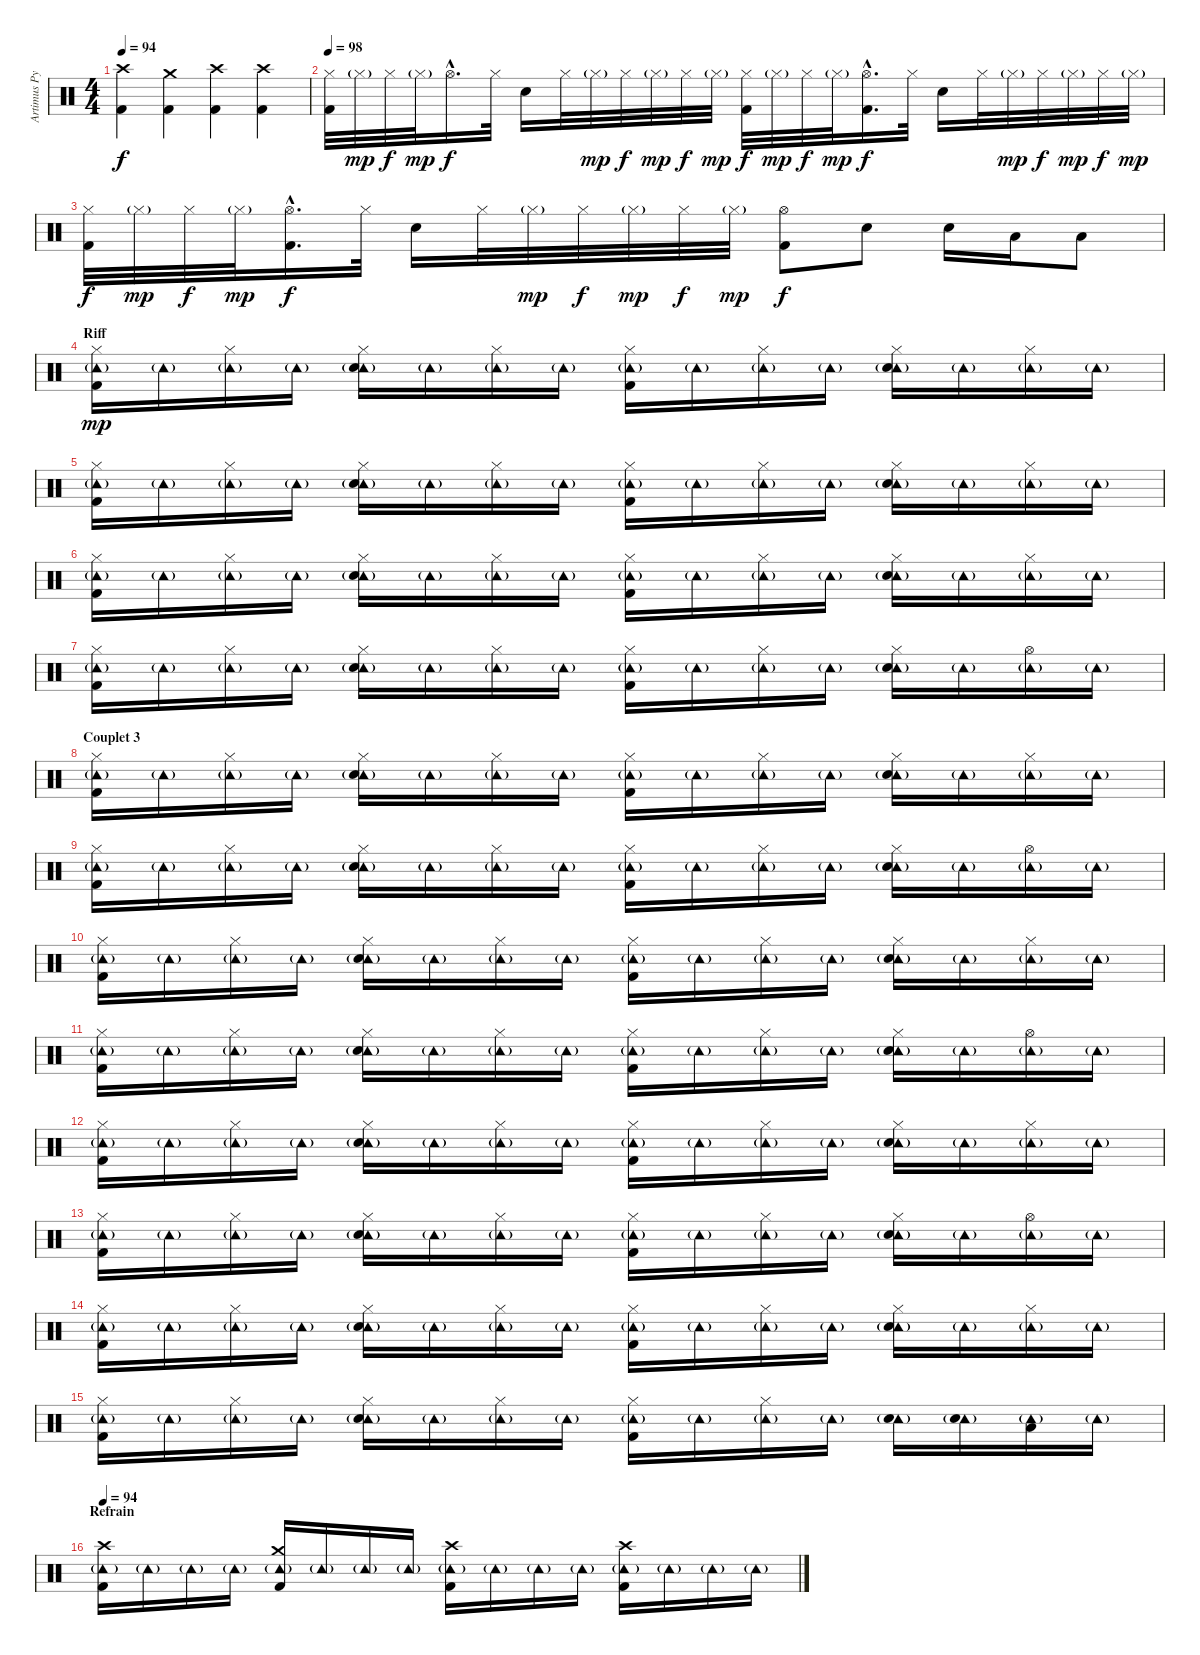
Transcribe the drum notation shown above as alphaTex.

\track ("Artimus Pyle (drums)" "Artimus Py") {instrument percussion}
\staff {score}
\articulation defaults
\ts (4 4)
\tempo 94
\clef neutral
\ks c
("Crash high (hit)" "Kick (hit) 2").4{dy f} ("Crash medium (hit)" "Kick (hit) 2").4 ("Crash high (hit)" "Kick (hit) 2").4 ("Crash high (hit)" "Kick (hit) 2").4 |
\tempo 98
("Hi-Hat (closed)" "Kick (hit) 2").32 "Hi-Hat (closed)"{g}.32{dy mp} "Hi-Hat (closed)".32{dy f} "Hi-Hat (closed)"{g}.32{dy mp} "Hi-Hat (open)"{hac}.16{d dy f} "Hi-Hat (closed)".32 "Electric Snare (hit)".16 "Hi-Hat (closed)".32 "Hi-Hat (closed)"{g}.32{dy mp} "Hi-Hat (closed)".32{dy f} "Hi-Hat (closed)"{g}.32{dy mp} "Hi-Hat (closed)".32{dy f} "Hi-Hat (closed)"{g}.32{dy mp} ("Hi-Hat (closed)" "Kick (hit) 2").32{dy f} "Hi-Hat (closed)"{g}.32{dy mp} "Hi-Hat (closed)".32{dy f} "Hi-Hat (closed)"{g}.32{dy mp} ("Hi-Hat (open)"{hac} "Kick (hit) 2"{hac}).16{d dy f} "Hi-Hat (closed)".32 "Electric Snare (hit)".16 "Hi-Hat (closed)".32 "Hi-Hat (closed)"{g}.32{dy mp} "Hi-Hat (closed)".32{dy f} "Hi-Hat (closed)"{g}.32{dy mp} "Hi-Hat (closed)".32{dy f} "Hi-Hat (closed)"{g}.32{dy mp} |
("Hi-Hat (closed)" "Kick (hit) 2").32{dy f} "Hi-Hat (closed)"{g}.32{dy mp} "Hi-Hat (closed)".32{dy f} "Hi-Hat (closed)"{g}.32{dy mp} ("Hi-Hat (open)"{hac} "Kick (hit) 2"{hac}).16{d dy f} "Hi-Hat (closed)".32 "Electric Snare (hit)".16 "Hi-Hat (closed)".32 "Hi-Hat (closed)"{g}.32{dy mp} "Hi-Hat (closed)".32{dy f} "Hi-Hat (closed)"{g}.32{dy mp} "Hi-Hat (closed)".32{dy f} "Hi-Hat (closed)"{g}.32{dy mp} ("Hi-Hat (open)" "Kick (hit) 2").8{dy f} "Electric Snare (hit)".8 "Electric Snare (hit)".16 "Low Tom (hit)".16 "Low Tom (hit)".8 |
\section ("" "Riff")
("Tambourine (hit)"{g} "Hi-Hat (closed)" "Kick (hit) 2").16{dy mp} "Tambourine (hit)"{g}.16 ("Tambourine (hit)"{g} "Hi-Hat (closed)").16 "Tambourine (hit)"{g}.16 ("Tambourine (hit)"{g} "Hi-Hat (closed)" "Electric Snare (hit)").16 "Tambourine (hit)"{g}.16 ("Tambourine (hit)"{g} "Hi-Hat (closed)").16 "Tambourine (hit)"{g}.16 ("Tambourine (hit)"{g} "Hi-Hat (closed)" "Kick (hit) 2").16 "Tambourine (hit)"{g}.16 ("Tambourine (hit)"{g} "Hi-Hat (closed)").16 "Tambourine (hit)"{g}.16 ("Tambourine (hit)"{g} "Hi-Hat (closed)" "Electric Snare (hit)").16 "Tambourine (hit)"{g}.16 ("Tambourine (hit)"{g} "Hi-Hat (closed)").16 "Tambourine (hit)"{g}.16 |
("Tambourine (hit)"{g} "Hi-Hat (closed)" "Kick (hit) 2").16 "Tambourine (hit)"{g}.16 ("Tambourine (hit)"{g} "Hi-Hat (closed)").16 "Tambourine (hit)"{g}.16 ("Tambourine (hit)"{g} "Hi-Hat (closed)" "Electric Snare (hit)").16 "Tambourine (hit)"{g}.16 ("Tambourine (hit)"{g} "Hi-Hat (closed)").16 "Tambourine (hit)"{g}.16 ("Tambourine (hit)"{g} "Hi-Hat (closed)" "Kick (hit) 2").16 "Tambourine (hit)"{g}.16 ("Tambourine (hit)"{g} "Hi-Hat (closed)").16 "Tambourine (hit)"{g}.16 ("Tambourine (hit)"{g} "Hi-Hat (closed)" "Electric Snare (hit)").16 "Tambourine (hit)"{g}.16 ("Tambourine (hit)"{g} "Hi-Hat (closed)").16 "Tambourine (hit)"{g}.16 |
("Tambourine (hit)"{g} "Hi-Hat (closed)" "Kick (hit) 2").16 "Tambourine (hit)"{g}.16 ("Tambourine (hit)"{g} "Hi-Hat (closed)").16 "Tambourine (hit)"{g}.16 ("Tambourine (hit)"{g} "Hi-Hat (closed)" "Electric Snare (hit)").16 "Tambourine (hit)"{g}.16 ("Tambourine (hit)"{g} "Hi-Hat (closed)").16 "Tambourine (hit)"{g}.16 ("Tambourine (hit)"{g} "Hi-Hat (closed)" "Kick (hit) 2").16 "Tambourine (hit)"{g}.16 ("Tambourine (hit)"{g} "Hi-Hat (closed)").16 "Tambourine (hit)"{g}.16 ("Tambourine (hit)"{g} "Hi-Hat (closed)" "Electric Snare (hit)").16 "Tambourine (hit)"{g}.16 ("Tambourine (hit)"{g} "Hi-Hat (closed)").16 "Tambourine (hit)"{g}.16 |
("Tambourine (hit)"{g} "Hi-Hat (closed)" "Kick (hit) 2").16 "Tambourine (hit)"{g}.16 ("Tambourine (hit)"{g} "Hi-Hat (closed)").16 "Tambourine (hit)"{g}.16 ("Tambourine (hit)"{g} "Hi-Hat (closed)" "Electric Snare (hit)").16 "Tambourine (hit)"{g}.16 ("Tambourine (hit)"{g} "Hi-Hat (closed)").16 "Tambourine (hit)"{g}.16 ("Tambourine (hit)"{g} "Hi-Hat (closed)" "Kick (hit) 2").16 "Tambourine (hit)"{g}.16 ("Tambourine (hit)"{g} "Hi-Hat (closed)").16 "Tambourine (hit)"{g}.16 ("Tambourine (hit)"{g} "Hi-Hat (closed)" "Electric Snare (hit)").16 "Tambourine (hit)"{g}.16 ("Tambourine (hit)"{g} "Hi-Hat (open)").16 "Tambourine (hit)"{g}.16 |
\section ("" "Couplet 3")
("Tambourine (hit)"{g} "Hi-Hat (closed)" "Kick (hit) 2").16 "Tambourine (hit)"{g}.16 ("Tambourine (hit)"{g} "Hi-Hat (closed)").16 "Tambourine (hit)"{g}.16 ("Tambourine (hit)"{g} "Hi-Hat (closed)" "Electric Snare (hit)").16 "Tambourine (hit)"{g}.16 ("Tambourine (hit)"{g} "Hi-Hat (closed)").16 "Tambourine (hit)"{g}.16 ("Tambourine (hit)"{g} "Hi-Hat (closed)" "Kick (hit) 2").16 "Tambourine (hit)"{g}.16 ("Tambourine (hit)"{g} "Hi-Hat (closed)").16 "Tambourine (hit)"{g}.16 ("Tambourine (hit)"{g} "Hi-Hat (closed)" "Electric Snare (hit)").16 "Tambourine (hit)"{g}.16 ("Tambourine (hit)"{g} "Hi-Hat (closed)").16 "Tambourine (hit)"{g}.16 |
("Tambourine (hit)"{g} "Hi-Hat (closed)" "Kick (hit) 2").16 "Tambourine (hit)"{g}.16 ("Tambourine (hit)"{g} "Hi-Hat (closed)").16 "Tambourine (hit)"{g}.16 ("Tambourine (hit)"{g} "Hi-Hat (closed)" "Electric Snare (hit)").16 "Tambourine (hit)"{g}.16 ("Tambourine (hit)"{g} "Hi-Hat (closed)").16 "Tambourine (hit)"{g}.16 ("Tambourine (hit)"{g} "Hi-Hat (closed)" "Kick (hit) 2").16 "Tambourine (hit)"{g}.16 ("Tambourine (hit)"{g} "Hi-Hat (closed)").16 "Tambourine (hit)"{g}.16 ("Tambourine (hit)"{g} "Hi-Hat (closed)" "Electric Snare (hit)").16 "Tambourine (hit)"{g}.16 ("Tambourine (hit)"{g} "Hi-Hat (open)").16 "Tambourine (hit)"{g}.16 |
("Tambourine (hit)"{g} "Hi-Hat (closed)" "Kick (hit) 2").16 "Tambourine (hit)"{g}.16 ("Tambourine (hit)"{g} "Hi-Hat (closed)").16 "Tambourine (hit)"{g}.16 ("Tambourine (hit)"{g} "Hi-Hat (closed)" "Electric Snare (hit)").16 "Tambourine (hit)"{g}.16 ("Tambourine (hit)"{g} "Hi-Hat (closed)").16 "Tambourine (hit)"{g}.16 ("Tambourine (hit)"{g} "Hi-Hat (closed)" "Kick (hit) 2").16 "Tambourine (hit)"{g}.16 ("Tambourine (hit)"{g} "Hi-Hat (closed)").16 "Tambourine (hit)"{g}.16 ("Tambourine (hit)"{g} "Hi-Hat (closed)" "Electric Snare (hit)").16 "Tambourine (hit)"{g}.16 ("Tambourine (hit)"{g} "Hi-Hat (closed)").16 "Tambourine (hit)"{g}.16 |
("Tambourine (hit)"{g} "Hi-Hat (closed)" "Kick (hit) 2").16 "Tambourine (hit)"{g}.16 ("Tambourine (hit)"{g} "Hi-Hat (closed)").16 "Tambourine (hit)"{g}.16 ("Tambourine (hit)"{g} "Hi-Hat (closed)" "Electric Snare (hit)").16 "Tambourine (hit)"{g}.16 ("Tambourine (hit)"{g} "Hi-Hat (closed)").16 "Tambourine (hit)"{g}.16 ("Tambourine (hit)"{g} "Hi-Hat (closed)" "Kick (hit) 2").16 "Tambourine (hit)"{g}.16 ("Tambourine (hit)"{g} "Hi-Hat (closed)").16 "Tambourine (hit)"{g}.16 ("Tambourine (hit)"{g} "Hi-Hat (closed)" "Electric Snare (hit)").16 "Tambourine (hit)"{g}.16 ("Tambourine (hit)"{g} "Hi-Hat (open)").16 "Tambourine (hit)"{g}.16 |
("Tambourine (hit)"{g} "Hi-Hat (closed)" "Kick (hit) 2").16 "Tambourine (hit)"{g}.16 ("Tambourine (hit)"{g} "Hi-Hat (closed)").16 "Tambourine (hit)"{g}.16 ("Tambourine (hit)"{g} "Hi-Hat (closed)" "Electric Snare (hit)").16 "Tambourine (hit)"{g}.16 ("Tambourine (hit)"{g} "Hi-Hat (closed)").16 "Tambourine (hit)"{g}.16 ("Tambourine (hit)"{g} "Hi-Hat (closed)" "Kick (hit) 2").16 "Tambourine (hit)"{g}.16 ("Tambourine (hit)"{g} "Hi-Hat (closed)").16 "Tambourine (hit)"{g}.16 ("Tambourine (hit)"{g} "Hi-Hat (closed)" "Electric Snare (hit)").16 "Tambourine (hit)"{g}.16 ("Tambourine (hit)"{g} "Hi-Hat (closed)").16 "Tambourine (hit)"{g}.16 |
("Tambourine (hit)"{g} "Hi-Hat (closed)" "Kick (hit) 2").16 "Tambourine (hit)"{g}.16 ("Tambourine (hit)"{g} "Hi-Hat (closed)").16 "Tambourine (hit)"{g}.16 ("Tambourine (hit)"{g} "Hi-Hat (closed)" "Electric Snare (hit)").16 "Tambourine (hit)"{g}.16 ("Tambourine (hit)"{g} "Hi-Hat (closed)").16 "Tambourine (hit)"{g}.16 ("Tambourine (hit)"{g} "Hi-Hat (closed)" "Kick (hit) 2").16 "Tambourine (hit)"{g}.16 ("Tambourine (hit)"{g} "Hi-Hat (closed)").16 "Tambourine (hit)"{g}.16 ("Tambourine (hit)"{g} "Hi-Hat (closed)" "Electric Snare (hit)").16 "Tambourine (hit)"{g}.16 ("Tambourine (hit)"{g} "Hi-Hat (open)").16 "Tambourine (hit)"{g}.16 |
("Tambourine (hit)"{g} "Hi-Hat (closed)" "Kick (hit) 2").16 "Tambourine (hit)"{g}.16 ("Tambourine (hit)"{g} "Hi-Hat (closed)").16 "Tambourine (hit)"{g}.16 ("Tambourine (hit)"{g} "Hi-Hat (closed)" "Electric Snare (hit)").16 "Tambourine (hit)"{g}.16 ("Tambourine (hit)"{g} "Hi-Hat (closed)").16 "Tambourine (hit)"{g}.16 ("Tambourine (hit)"{g} "Hi-Hat (closed)" "Kick (hit) 2").16 "Tambourine (hit)"{g}.16 ("Tambourine (hit)"{g} "Hi-Hat (closed)").16 "Tambourine (hit)"{g}.16 ("Tambourine (hit)"{g} "Hi-Hat (closed)" "Electric Snare (hit)").16 "Tambourine (hit)"{g}.16 ("Tambourine (hit)"{g} "Hi-Hat (closed)").16 "Tambourine (hit)"{g}.16 |
("Tambourine (hit)"{g} "Hi-Hat (closed)" "Kick (hit) 2").16 "Tambourine (hit)"{g}.16 ("Tambourine (hit)"{g} "Hi-Hat (closed)").16 "Tambourine (hit)"{g}.16 ("Tambourine (hit)"{g} "Hi-Hat (closed)" "Electric Snare (hit)").16 "Tambourine (hit)"{g}.16 ("Tambourine (hit)"{g} "Hi-Hat (closed)").16 "Tambourine (hit)"{g}.16 ("Tambourine (hit)"{g} "Hi-Hat (closed)" "Kick (hit) 2").16 "Tambourine (hit)"{g}.16 ("Tambourine (hit)"{g} "Hi-Hat (closed)").16 "Tambourine (hit)"{g}.16 ("Tambourine (hit)"{g} "Electric Snare (hit)").16 ("Tambourine (hit)"{g} "Electric Snare (hit)").16 ("Tambourine (hit)"{g} "Low Tom (hit)").16 "Tambourine (hit)"{g}.16 |
\section ("" "Refrain")
\tempo 94
("Tambourine (hit)"{g} "Crash high (hit)" "Kick (hit) 2").16 "Tambourine (hit)"{g}.16 "Tambourine (hit)"{g}.16 "Tambourine (hit)"{g}.16 ("Tambourine (hit)"{g} "Crash medium (hit)" "Kick (hit) 2").16 "Tambourine (hit)"{g}.16 "Tambourine (hit)"{g}.16 "Tambourine (hit)"{g}.16 ("Tambourine (hit)"{g} "Crash high (hit)" "Kick (hit) 2").16 "Tambourine (hit)"{g}.16 "Tambourine (hit)"{g}.16 "Tambourine (hit)"{g}.16 ("Tambourine (hit)"{g} "Crash high (hit)" "Kick (hit) 2").16 "Tambourine (hit)"{g}.16 "Tambourine (hit)"{g}.16 "Tambourine (hit)"{g}.16
